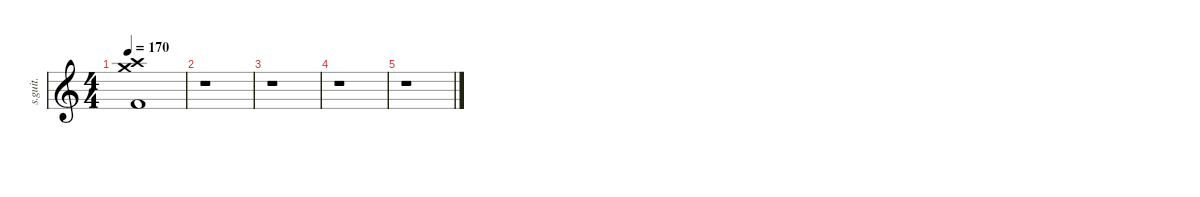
\defaultSystemsLayout 4
\hideDynamics
\bracketExtendMode nobrackets
\track ("Drumkit" "s.guit.") {instrument percussion}
\staff {score}
\articulation defaults
\ts (4 4)
\tempo 170
\clef g2
\ks c
("Crash high (hit)" "Kick (hit) 2" "Crash medium (hit)").1{lyrics (0 "") lyrics (1 "") lyrics (2 "") lyrics (3 "") lyrics (4 "") dy ff} |
r.1 |
r.1 |
r.1 |
r.1
